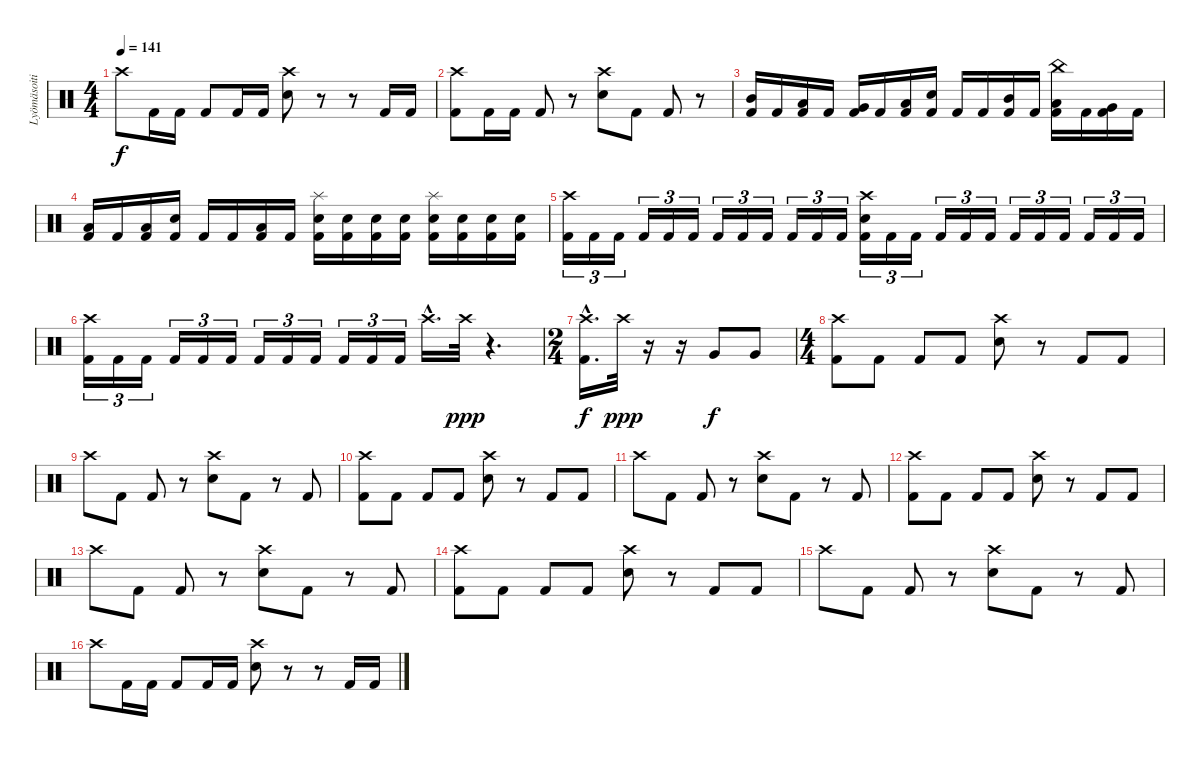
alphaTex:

\track ("Lyömäsoitin" "Lyömäsoiti") {instrument percussion}
\staff {score}
\articulation defaults
\ts (4 4)
\tempo 141
\clef neutral
\ks c "Crash high (hit)".8{dy f} "Kick (hit) 2".16 "Kick (hit) 2".16 "Kick (hit) 2".8 "Kick (hit) 2".16 "Kick (hit) 2".16
("Crash high (hit)" "Electric Snare (hit)").8 r.8 r.8 "Kick (hit) 2".16 "Kick (hit) 2".16 |
("Crash high (hit)" "Kick (hit) 2").8 "Kick (hit) 2".16 "Kick (hit) 2".16 "Kick (hit) 2".8 r.8 ("Crash high (hit)" "Electric Snare (hit)").8 "Kick (hit) 2".8 "Kick (hit) 2".8 r.8 |
("Mid Tom (hit)" "Kick (hit) 2").16 "Kick (hit) 2".16 ("Low Tom (hit)" "Kick (hit) 2").16 "Kick (hit) 2".16 ("Very Low Tom (hit)" "Kick (hit) 2").16 "Kick (hit) 2".16 ("Low Floor Tom (hit)" "Kick (hit) 2").16 ("Electric Snare (hit)" "Kick (hit) 2").16 "Kick (hit) 2".16 "Kick (hit) 2".16 ("Mid Tom (hit)" "Kick (hit) 2").16 "Kick (hit) 2".16 ("China (hit)" "Low Tom (hit)" "Kick (hit) 2").16 "Kick (hit) 2".16 ("Very Low Tom (hit)" "Kick (hit) 2").16 "Kick (hit) 2".16 |
("Low Tom (hit)" "Kick (hit) 2").16 "Kick (hit) 2".16 ("Low Floor Tom (hit)" "Kick (hit) 2").16 ("Electric Snare (hit)" "Kick (hit) 2").16 "Kick (hit) 2".16 "Kick (hit) 2".16 ("Low Tom (hit)" "Kick (hit) 2").16 "Kick (hit) 2".16 ("Splash (hit)" "Electric Snare (hit)" "Kick (hit) 2").16 ("Electric Snare (hit)" "Kick (hit) 2").16 ("Electric Snare (hit)" "Kick (hit) 2").16 ("Electric Snare (hit)" "Kick (hit) 2").16 ("Splash (hit)" "Electric Snare (hit)" "Kick (hit) 2").16 ("Electric Snare (hit)" "Kick (hit) 2").16 ("Electric Snare (hit)" "Kick (hit) 2").16 ("Electric Snare (hit)" "Kick (hit) 2").16 |
("Crash high (hit)" "Kick (hit) 2").16{tu (3 2)} "Kick (hit) 2".16{tu (3 2)} "Kick (hit) 2".16{tu (3 2)} "Kick (hit) 2".16{tu (3 2)} "Kick (hit) 2".16{tu (3 2)} "Kick (hit) 2".16{tu (3 2)} "Kick (hit) 2".16{tu (3 2)} "Kick (hit) 2".16{tu (3 2)} "Kick (hit) 2".16{tu (3 2)} "Kick (hit) 2".16{tu (3 2)} "Kick (hit) 2".16{tu (3 2)} "Kick (hit) 2".16{tu (3 2)} ("Crash high (hit)" "Electric Snare (hit)" "Kick (hit) 2").16{tu (3 2)} "Kick (hit) 2".16{tu (3 2)} "Kick (hit) 2".16{tu (3 2)} "Kick (hit) 2".16{tu (3 2)} "Kick (hit) 2".16{tu (3 2)} "Kick (hit) 2".16{tu (3 2)} "Kick (hit) 2".16{tu (3 2)} "Kick (hit) 2".16{tu (3 2)} "Kick (hit) 2".16{tu (3 2)} "Kick (hit) 2".16{tu (3 2)} "Kick (hit) 2".16{tu (3 2)} "Kick (hit) 2".16{tu (3 2)} |
("Crash high (hit)" "Kick (hit) 2").16{tu (3 2)} "Kick (hit) 2".16{tu (3 2)} "Kick (hit) 2".16{tu (3 2)} "Kick (hit) 2".16{tu (3 2)} "Kick (hit) 2".16{tu (3 2)} "Kick (hit) 2".16{tu (3 2)} "Kick (hit) 2".16{tu (3 2)} "Kick (hit) 2".16{tu (3 2)} "Kick (hit) 2".16{tu (3 2)} "Kick (hit) 2".16{tu (3 2)} "Kick (hit) 2".16{tu (3 2)} "Kick (hit) 2".16{tu (3 2)} "Crash high (hit)"{hac}.16{d} "Crash high (hit)".32{dy ppp} r.4{d} |
\ts (2 4)
("Crash high (hit)"{hac} "Kick (hit) 2"{hac}).16{d dy f} "Crash high (hit)".32{dy ppp} r.16 r.16 "Very Low Tom (hit)".8{dy f} "Very Low Tom (hit)".8 |
\ts (4 4)
("Crash high (hit)" "Kick (hit) 2").8 "Kick (hit) 2".8 "Kick (hit) 2".8 "Kick (hit) 2".8 ("Crash high (hit)" "Electric Snare (hit)").8 r.8 "Kick (hit) 2".8 "Kick (hit) 2".8 |
"Crash high (hit)".8 "Kick (hit) 2".8 "Kick (hit) 2".8 r.8 ("Crash high (hit)" "Electric Snare (hit)").8 "Kick (hit) 2".8 r.8 "Kick (hit) 2".8 |
("Crash high (hit)" "Kick (hit) 2").8 "Kick (hit) 2".8 "Kick (hit) 2".8 "Kick (hit) 2".8 ("Crash high (hit)" "Electric Snare (hit)").8 r.8 "Kick (hit) 2".8 "Kick (hit) 2".8 |
"Crash high (hit)".8 "Kick (hit) 2".8 "Kick (hit) 2".8 r.8 ("Crash high (hit)" "Electric Snare (hit)").8 "Kick (hit) 2".8 r.8 "Kick (hit) 2".8 |
("Crash high (hit)" "Kick (hit) 2").8 "Kick (hit) 2".8 "Kick (hit) 2".8 "Kick (hit) 2".8 ("Crash high (hit)" "Electric Snare (hit)").8 r.8 "Kick (hit) 2".8 "Kick (hit) 2".8 |
"Crash high (hit)".8 "Kick (hit) 2".8 "Kick (hit) 2".8 r.8 ("Crash high (hit)" "Electric Snare (hit)").8 "Kick (hit) 2".8 r.8 "Kick (hit) 2".8 |
("Crash high (hit)" "Kick (hit) 2").8 "Kick (hit) 2".8 "Kick (hit) 2".8 "Kick (hit) 2".8 ("Crash high (hit)" "Electric Snare (hit)").8 r.8 "Kick (hit) 2".8 "Kick (hit) 2".8 |
"Crash high (hit)".8 "Kick (hit) 2".8 "Kick (hit) 2".8 r.8 ("Crash high (hit)" "Electric Snare (hit)").8 "Kick (hit) 2".8 r.8 "Kick (hit) 2".8 |
"Crash high (hit)".8 "Kick (hit) 2".16 "Kick (hit) 2".16 "Kick (hit) 2".8 "Kick (hit) 2".16 "Kick (hit) 2".16 ("Crash high (hit)" "Electric Snare (hit)").8 r.8 r.8 "Kick (hit) 2".16 "Kick (hit) 2".16
